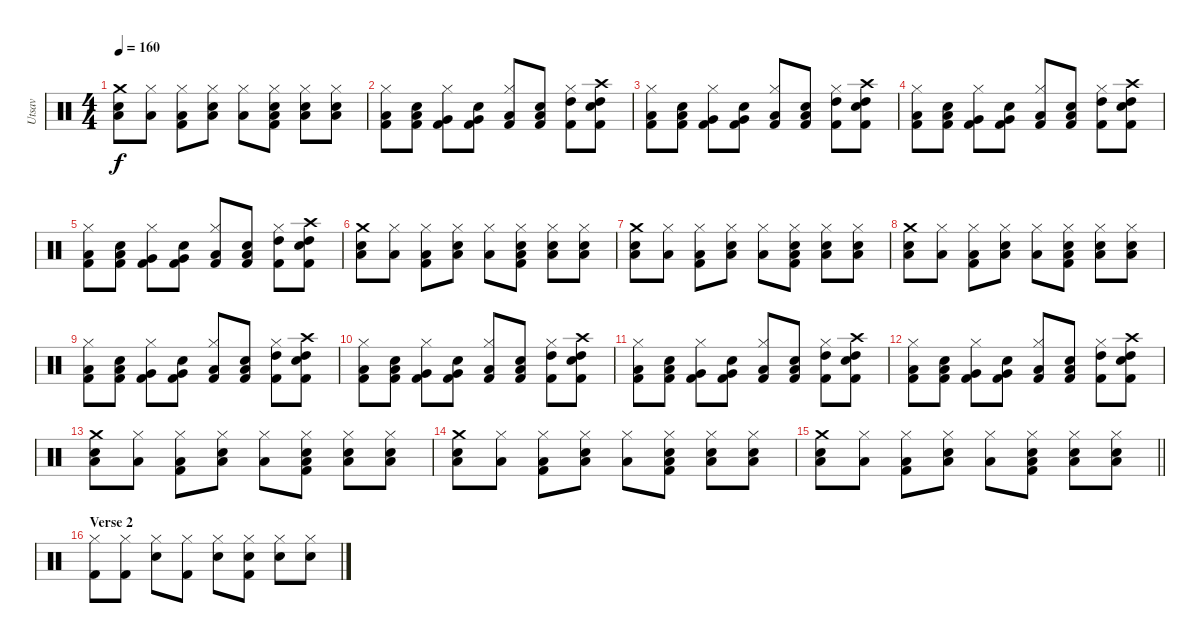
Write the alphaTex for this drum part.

\track ("Utsav" "Utsav") {instrument percussion}
\staff {score}
\articulation defaults
\ts (4 4)
\tempo 160
\clef neutral
\ks c
("Crash medium (hit)" "Low Floor Tom (hit)" "Snare (hit) 2").8{dy f} ("Low Floor Tom (hit)" "Hi-Hat (closed)").8 ("Low Floor Tom (hit)" "Hi-Hat (closed)" "Kick (hit) 2").8 ("Low Floor Tom (hit)" "Hi-Hat (closed)" "Snare (hit) 2").8 ("Low Floor Tom (hit)" "Hi-Hat (closed)").8 ("Low Floor Tom (hit)" "Hi-Hat (closed)" "Snare (hit) 2" "Kick (hit) 2").8 ("Low Floor Tom (hit)" "Hi-Hat (closed)" "Snare (hit) 2").8 ("Low Floor Tom (hit)" "Hi-Hat (closed)" "Snare (hit) 2").8 |
("Low Tom (hit)" "Hi-Hat (closed)" "Kick (hit) 2").8 ("Low Tom (hit)" "Snare (hit) 2" "Kick (hit) 2").8 ("Very Low Tom (hit)" "Hi-Hat (closed)" "Kick (hit) 2").8 ("Very Low Tom (hit)" "Snare (hit) 2" "Kick (hit) 2").8 ("Low Floor Tom (hit)" "Hi-Hat (closed)" "Kick (hit) 2").8 ("Low Floor Tom (hit)" "Snare (hit) 2" "Kick (hit) 2").8 ("High Tom (hit)" "Hi-Hat (closed)" "Kick (hit) 2").8 ("High Tom (hit)" "Crash high (hit)" "Snare (hit) 2" "Kick (hit) 2").8 |
("Low Tom (hit)" "Hi-Hat (closed)" "Kick (hit) 2").8 ("Low Tom (hit)" "Snare (hit) 2" "Kick (hit) 2").8 ("Very Low Tom (hit)" "Hi-Hat (closed)" "Kick (hit) 2").8 ("Very Low Tom (hit)" "Snare (hit) 2" "Kick (hit) 2").8 ("Low Floor Tom (hit)" "Hi-Hat (closed)" "Kick (hit) 2").8 ("Low Floor Tom (hit)" "Snare (hit) 2" "Kick (hit) 2").8 ("High Tom (hit)" "Hi-Hat (closed)" "Kick (hit) 2").8 ("High Tom (hit)" "Crash high (hit)" "Snare (hit) 2" "Kick (hit) 2").8 |
("Low Tom (hit)" "Hi-Hat (closed)" "Kick (hit) 2").8 ("Low Tom (hit)" "Snare (hit) 2" "Kick (hit) 2").8 ("Very Low Tom (hit)" "Hi-Hat (closed)" "Kick (hit) 2").8 ("Very Low Tom (hit)" "Snare (hit) 2" "Kick (hit) 2").8 ("Low Floor Tom (hit)" "Hi-Hat (closed)" "Kick (hit) 2").8 ("Low Floor Tom (hit)" "Snare (hit) 2" "Kick (hit) 2").8 ("High Tom (hit)" "Hi-Hat (closed)" "Kick (hit) 2").8 ("High Tom (hit)" "Crash high (hit)" "Snare (hit) 2" "Kick (hit) 2").8 |
("Low Tom (hit)" "Hi-Hat (closed)" "Kick (hit) 2").8 ("Low Tom (hit)" "Snare (hit) 2" "Kick (hit) 2").8 ("Very Low Tom (hit)" "Hi-Hat (closed)" "Kick (hit) 2").8 ("Very Low Tom (hit)" "Snare (hit) 2" "Kick (hit) 2").8 ("Low Floor Tom (hit)" "Hi-Hat (closed)" "Kick (hit) 2").8 ("Low Floor Tom (hit)" "Snare (hit) 2" "Kick (hit) 2").8 ("High Tom (hit)" "Hi-Hat (closed)" "Kick (hit) 2").8 ("High Tom (hit)" "Crash high (hit)" "Snare (hit) 2" "Kick (hit) 2").8 |
("Crash medium (hit)" "Low Floor Tom (hit)" "Snare (hit) 2").8 ("Low Floor Tom (hit)" "Hi-Hat (closed)").8 ("Low Floor Tom (hit)" "Hi-Hat (closed)" "Kick (hit) 2").8 ("Low Floor Tom (hit)" "Hi-Hat (closed)" "Snare (hit) 2").8 ("Low Floor Tom (hit)" "Hi-Hat (closed)").8 ("Low Floor Tom (hit)" "Hi-Hat (closed)" "Snare (hit) 2" "Kick (hit) 2").8 ("Low Floor Tom (hit)" "Hi-Hat (closed)" "Snare (hit) 2").8 ("Low Floor Tom (hit)" "Hi-Hat (closed)" "Snare (hit) 2").8 |
("Crash medium (hit)" "Low Floor Tom (hit)" "Snare (hit) 2").8 ("Low Floor Tom (hit)" "Hi-Hat (closed)").8 ("Low Floor Tom (hit)" "Hi-Hat (closed)" "Kick (hit) 2").8 ("Low Floor Tom (hit)" "Hi-Hat (closed)" "Snare (hit) 2").8 ("Low Floor Tom (hit)" "Hi-Hat (closed)").8 ("Low Floor Tom (hit)" "Hi-Hat (closed)" "Snare (hit) 2" "Kick (hit) 2").8 ("Low Floor Tom (hit)" "Hi-Hat (closed)" "Snare (hit) 2").8 ("Low Floor Tom (hit)" "Hi-Hat (closed)" "Snare (hit) 2").8 |
("Crash medium (hit)" "Low Floor Tom (hit)" "Snare (hit) 2").8 ("Low Floor Tom (hit)" "Hi-Hat (closed)").8 ("Low Floor Tom (hit)" "Hi-Hat (closed)" "Kick (hit) 2").8 ("Low Floor Tom (hit)" "Hi-Hat (closed)" "Snare (hit) 2").8 ("Low Floor Tom (hit)" "Hi-Hat (closed)").8 ("Low Floor Tom (hit)" "Hi-Hat (closed)" "Snare (hit) 2" "Kick (hit) 2").8 ("Low Floor Tom (hit)" "Hi-Hat (closed)" "Snare (hit) 2").8 ("Low Floor Tom (hit)" "Hi-Hat (closed)" "Snare (hit) 2").8 |
("Low Tom (hit)" "Hi-Hat (closed)" "Kick (hit) 2").8 ("Low Tom (hit)" "Snare (hit) 2" "Kick (hit) 2").8 ("Very Low Tom (hit)" "Hi-Hat (closed)" "Kick (hit) 2").8 ("Very Low Tom (hit)" "Snare (hit) 2" "Kick (hit) 2").8 ("Low Floor Tom (hit)" "Hi-Hat (closed)" "Kick (hit) 2").8 ("Low Floor Tom (hit)" "Snare (hit) 2" "Kick (hit) 2").8 ("High Tom (hit)" "Hi-Hat (closed)" "Kick (hit) 2").8 ("High Tom (hit)" "Crash high (hit)" "Snare (hit) 2" "Kick (hit) 2").8 |
("Low Tom (hit)" "Hi-Hat (closed)" "Kick (hit) 2").8 ("Low Tom (hit)" "Snare (hit) 2" "Kick (hit) 2").8 ("Very Low Tom (hit)" "Hi-Hat (closed)" "Kick (hit) 2").8 ("Very Low Tom (hit)" "Snare (hit) 2" "Kick (hit) 2").8 ("Low Floor Tom (hit)" "Hi-Hat (closed)" "Kick (hit) 2").8 ("Low Floor Tom (hit)" "Snare (hit) 2" "Kick (hit) 2").8 ("High Tom (hit)" "Hi-Hat (closed)" "Kick (hit) 2").8 ("High Tom (hit)" "Crash high (hit)" "Snare (hit) 2" "Kick (hit) 2").8 |
("Low Tom (hit)" "Hi-Hat (closed)" "Kick (hit) 2").8 ("Low Tom (hit)" "Snare (hit) 2" "Kick (hit) 2").8 ("Very Low Tom (hit)" "Hi-Hat (closed)" "Kick (hit) 2").8 ("Very Low Tom (hit)" "Snare (hit) 2" "Kick (hit) 2").8 ("Low Floor Tom (hit)" "Hi-Hat (closed)" "Kick (hit) 2").8 ("Low Floor Tom (hit)" "Snare (hit) 2" "Kick (hit) 2").8 ("High Tom (hit)" "Hi-Hat (closed)" "Kick (hit) 2").8 ("High Tom (hit)" "Crash high (hit)" "Snare (hit) 2" "Kick (hit) 2").8 |
("Low Tom (hit)" "Hi-Hat (closed)" "Kick (hit) 2").8 ("Low Tom (hit)" "Snare (hit) 2" "Kick (hit) 2").8 ("Very Low Tom (hit)" "Hi-Hat (closed)" "Kick (hit) 2").8 ("Very Low Tom (hit)" "Snare (hit) 2" "Kick (hit) 2").8 ("Low Floor Tom (hit)" "Hi-Hat (closed)" "Kick (hit) 2").8 ("Low Floor Tom (hit)" "Snare (hit) 2" "Kick (hit) 2").8 ("High Tom (hit)" "Hi-Hat (closed)" "Kick (hit) 2").8 ("High Tom (hit)" "Crash high (hit)" "Snare (hit) 2" "Kick (hit) 2").8 |
("Crash medium (hit)" "Low Floor Tom (hit)" "Snare (hit) 2").8 ("Low Floor Tom (hit)" "Hi-Hat (closed)").8 ("Low Floor Tom (hit)" "Hi-Hat (closed)" "Kick (hit) 2").8 ("Low Floor Tom (hit)" "Hi-Hat (closed)" "Snare (hit) 2").8 ("Low Floor Tom (hit)" "Hi-Hat (closed)").8 ("Low Floor Tom (hit)" "Hi-Hat (closed)" "Snare (hit) 2" "Kick (hit) 2").8 ("Low Floor Tom (hit)" "Hi-Hat (closed)" "Snare (hit) 2").8 ("Low Floor Tom (hit)" "Hi-Hat (closed)" "Snare (hit) 2").8 |
("Crash medium (hit)" "Low Floor Tom (hit)" "Snare (hit) 2").8 ("Low Floor Tom (hit)" "Hi-Hat (closed)").8 ("Low Floor Tom (hit)" "Hi-Hat (closed)" "Kick (hit) 2").8 ("Low Floor Tom (hit)" "Hi-Hat (closed)" "Snare (hit) 2").8 ("Low Floor Tom (hit)" "Hi-Hat (closed)").8 ("Low Floor Tom (hit)" "Hi-Hat (closed)" "Snare (hit) 2" "Kick (hit) 2").8 ("Low Floor Tom (hit)" "Hi-Hat (closed)" "Snare (hit) 2").8 ("Low Floor Tom (hit)" "Hi-Hat (closed)" "Snare (hit) 2").8 |
\barLineRight lightlight
("Crash medium (hit)" "Low Floor Tom (hit)" "Snare (hit) 2").8 ("Low Floor Tom (hit)" "Hi-Hat (closed)").8 ("Low Floor Tom (hit)" "Hi-Hat (closed)" "Kick (hit) 2").8 ("Low Floor Tom (hit)" "Hi-Hat (closed)" "Snare (hit) 2").8 ("Low Floor Tom (hit)" "Hi-Hat (closed)").8 ("Low Floor Tom (hit)" "Hi-Hat (closed)" "Snare (hit) 2" "Kick (hit) 2").8 ("Low Floor Tom (hit)" "Hi-Hat (closed)" "Snare (hit) 2").8 ("Low Floor Tom (hit)" "Hi-Hat (closed)" "Snare (hit) 2").8 |
\section ("" "Verse 2")
("Hi-Hat (closed)" "Kick (hit) 2").8 ("Hi-Hat (closed)" "Kick (hit) 2").8 ("Hi-Hat (closed)" "Electric Snare (hit)").8 ("Hi-Hat (closed)" "Kick (hit) 2").8 ("Hi-Hat (closed)" "Electric Snare (hit)").8 ("Hi-Hat (closed)" "Snare (hit) 2" "Kick (hit) 2").8 ("Hi-Hat (closed)" "Snare (hit) 2").8 ("Hi-Hat (closed)" "Snare (hit) 2").8
